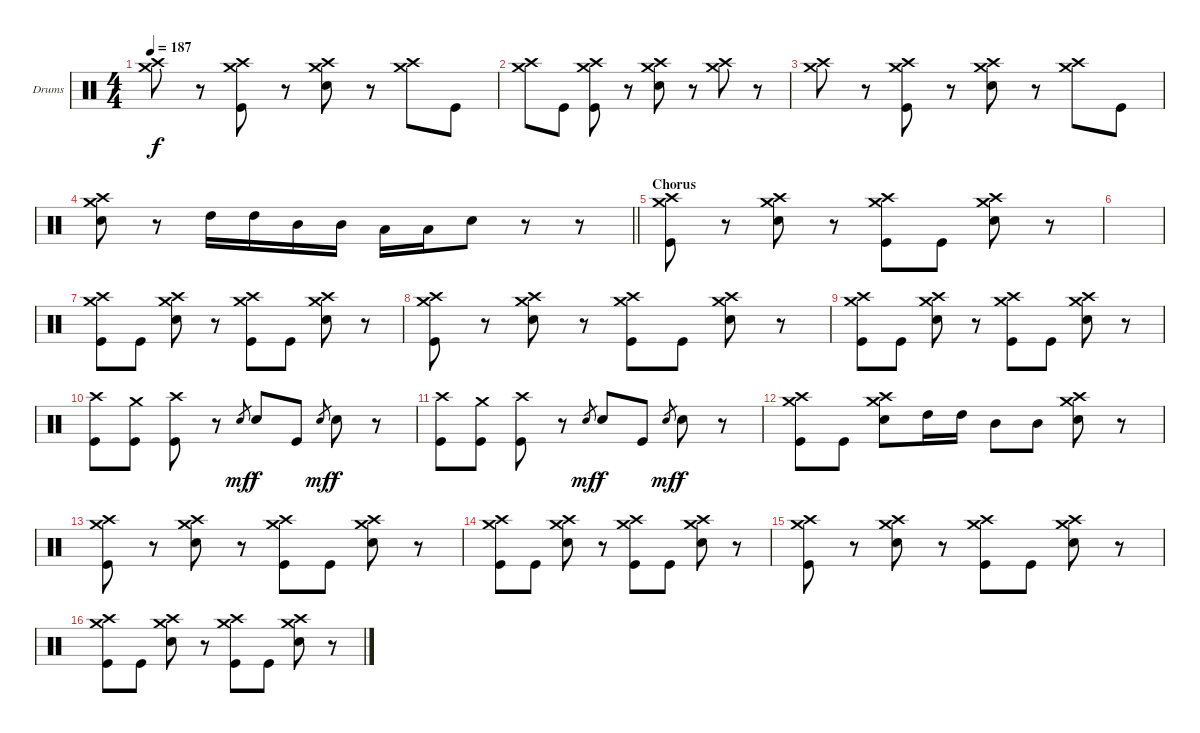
\bracketExtendMode groupsimilarinstruments
\firstSystemTrackNameOrientation horizontal
\otherSystemsTrackNameOrientation horizontal
\track ("Rian Dawson" "Drums") {instrument percussion}
\staff {score}
\articulation defaults
\ts (4 4)
\tempo 187
\clef neutral
\ks c
("Crash medium (hit)" "Crash high (hit)").8{dy f} r.8 ("Crash medium (hit)" "Crash high (hit)" "Kick (hit)").8 r.8 ("Crash medium (hit)" "Crash high (hit)" "Snare (hit) 2").8 r.8 ("Crash medium (hit)" "Crash high (hit)").8 "Kick (hit)".8 |
("Crash medium (hit)" "Crash high (hit)").8 "Kick (hit)".8 ("Crash medium (hit)" "Crash high (hit)" "Kick (hit)").8 r.8 ("Crash medium (hit)" "Crash high (hit)" "Snare (hit) 2").8 r.8 ("Crash medium (hit)" "Crash high (hit)").8 r.8 |
("Crash medium (hit)" "Crash high (hit)").8 r.8 ("Crash medium (hit)" "Crash high (hit)" "Kick (hit)").8 r.8 ("Crash medium (hit)" "Crash high (hit)" "Snare (hit) 2").8 r.8 ("Crash medium (hit)" "Crash high (hit)").8 "Kick (hit)".8 |
\barLineRight lightlight
("Crash medium (hit)" "Crash high (hit)" "Snare (hit) 2").8 r.8 "High Tom (hit)".16 "High Tom (hit)".16 "Mid Tom (hit)".16 "Mid Tom (hit)".16 "Low Tom (hit)".16 "Low Tom (hit)".16 "Snare (hit) 2".8 r.8 r.8 |
\section ("" "Chorus")
("Crash medium (hit)" "Crash high (hit)" "Kick (hit)").8 r.8 ("Crash medium (hit)" "Crash high (hit)" "Snare (hit) 2").8 r.8 ("Crash medium (hit)" "Crash high (hit)" "Kick (hit)").8 "Kick (hit)".8 ("Crash medium (hit)" "Crash high (hit)" "Snare (hit) 2").8 r.8 |
|
("Crash medium (hit)" "Crash high (hit)" "Kick (hit)").8 "Kick (hit)".8 ("Crash medium (hit)" "Crash high (hit)" "Snare (hit) 2").8 r.8 ("Crash medium (hit)" "Crash high (hit)" "Kick (hit)").8 "Kick (hit)".8 ("Crash medium (hit)" "Crash high (hit)" "Snare (hit) 2").8 r.8 |
("Crash medium (hit)" "Crash high (hit)" "Kick (hit)").8 r.8 ("Crash medium (hit)" "Crash high (hit)" "Snare (hit) 2").8 r.8 ("Crash medium (hit)" "Crash high (hit)" "Kick (hit)").8 "Kick (hit)".8 ("Crash medium (hit)" "Crash high (hit)" "Snare (hit) 2").8 r.8 |
("Crash medium (hit)" "Crash high (hit)" "Kick (hit)").8 "Kick (hit)".8 ("Crash medium (hit)" "Crash high (hit)" "Snare (hit) 2").8 r.8 ("Crash medium (hit)" "Crash high (hit)" "Kick (hit)").8 "Kick (hit)".8 ("Crash medium (hit)" "Crash high (hit)" "Snare (hit) 2").8 r.8 |
("Crash high (hit)" "Kick (hit)").8 ("Crash medium (hit)" "Kick (hit)").8 ("Crash high (hit)" "Kick (hit)").8 r.8 "Snare (hit) 2".8{gr dy mf} "Snare (hit) 2".8{dy f} "Kick (hit)".8 "Snare (hit) 2".8{gr dy mf} "Snare (hit) 2".8{dy f} r.8 |
("Crash high (hit)" "Kick (hit)").8 ("Crash medium (hit)" "Kick (hit)").8 ("Crash high (hit)" "Kick (hit)").8 r.8 "Snare (hit) 2".8{gr dy mf} "Snare (hit) 2".8{dy f} "Kick (hit)".8 "Snare (hit) 2".8{gr dy mf} "Snare (hit) 2".8{dy f} r.8 |
("Crash medium (hit)" "Crash high (hit)" "Kick (hit)").8 "Kick (hit)".8 ("Crash medium (hit)" "Crash high (hit)" "Snare (hit) 2").8 "High Tom (hit)".16 "High Tom (hit)".16 "Mid Tom (hit)".8 "Mid Tom (hit)".8 ("Crash medium (hit)" "Crash high (hit)" "Snare (hit) 2").8 r.8 |
("Crash medium (hit)" "Crash high (hit)" "Kick (hit)").8 r.8 ("Crash medium (hit)" "Crash high (hit)" "Snare (hit) 2").8 r.8 ("Crash medium (hit)" "Crash high (hit)" "Kick (hit)").8 "Kick (hit)".8 ("Crash medium (hit)" "Crash high (hit)" "Snare (hit) 2").8 r.8 |
("Crash medium (hit)" "Crash high (hit)" "Kick (hit)").8 "Kick (hit)".8 ("Crash medium (hit)" "Crash high (hit)" "Snare (hit) 2").8 r.8 ("Crash medium (hit)" "Crash high (hit)" "Kick (hit)").8 "Kick (hit)".8 ("Crash medium (hit)" "Crash high (hit)" "Snare (hit) 2").8 r.8 |
("Crash medium (hit)" "Crash high (hit)" "Kick (hit)").8 r.8 ("Crash medium (hit)" "Crash high (hit)" "Snare (hit) 2").8 r.8 ("Crash medium (hit)" "Crash high (hit)" "Kick (hit)").8 "Kick (hit)".8 ("Crash medium (hit)" "Crash high (hit)" "Snare (hit) 2").8 r.8 |
("Crash medium (hit)" "Crash high (hit)" "Kick (hit)").8 "Kick (hit)".8 ("Crash medium (hit)" "Crash high (hit)" "Snare (hit) 2").8 r.8 ("Crash medium (hit)" "Crash high (hit)" "Kick (hit)").8 "Kick (hit)".8 ("Crash medium (hit)" "Crash high (hit)" "Snare (hit) 2").8 r.8
